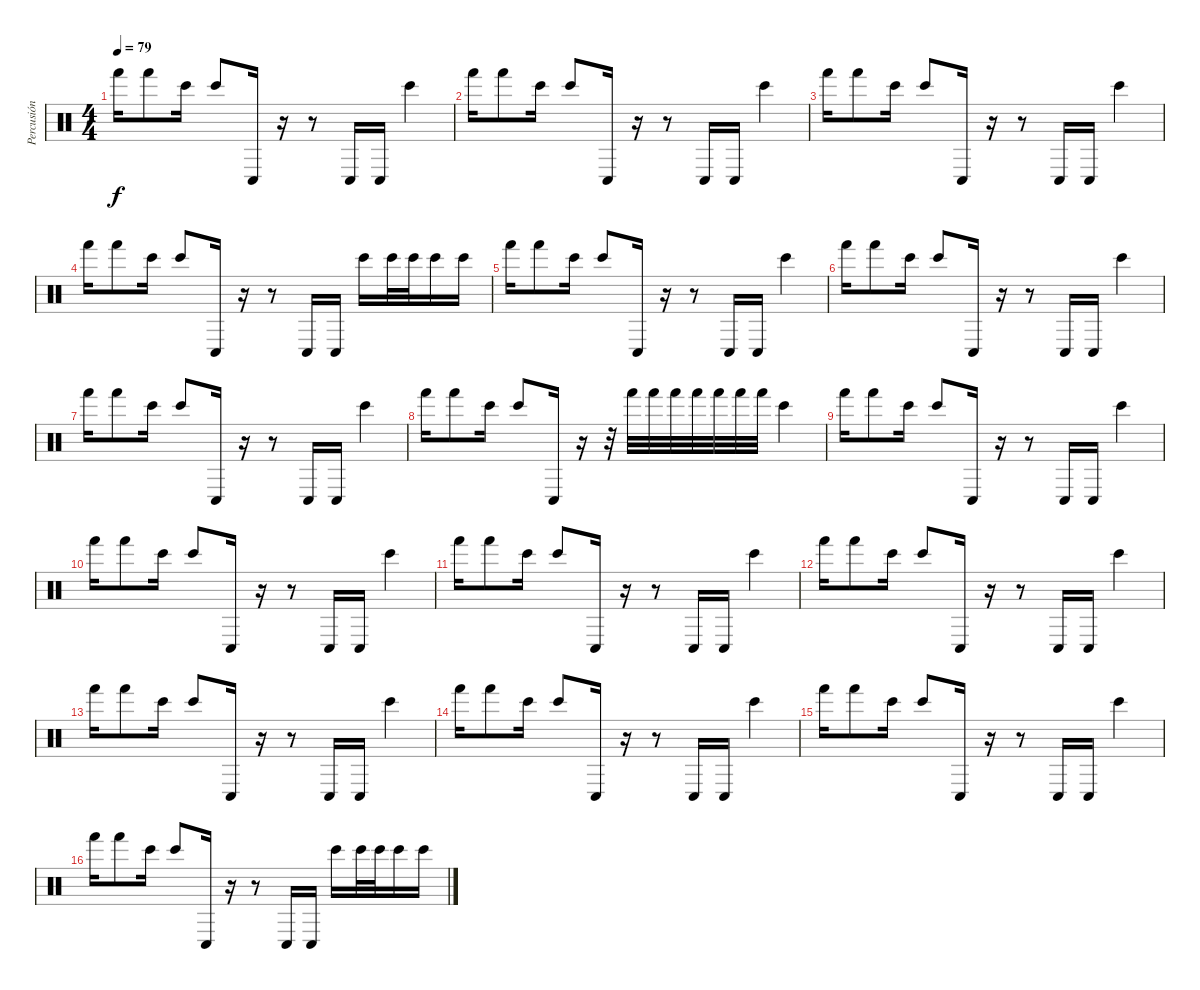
\track ("Percusión" "Percusión") {instrument percussion}
\staff {score}
\articulation defaults
\ts (4 4)
\tempo 79
\clef neutral
\ks c "Hand (hit)".16{dy f} "Hand (hit)".8 "Bongo High (hit)".16 "Bongo High (hit)".8 "Conga low (hit)".16
r.16 r.8 "Conga low (hit)".16 "Conga low (hit)".16 "Bongo High (hit)".4 |
"Hand (hit)".16 "Hand (hit)".8 "Bongo High (hit)".16 "Bongo High (hit)".8 "Conga low (hit)".16 r.16 r.8 "Conga low (hit)".16 "Conga low (hit)".16 "Bongo High (hit)".4 |
"Hand (hit)".16 "Hand (hit)".8 "Bongo High (hit)".16 "Bongo High (hit)".8 "Conga low (hit)".16 r.16 r.8 "Conga low (hit)".16 "Conga low (hit)".16 "Bongo High (hit)".4 |
"Hand (hit)".16 "Hand (hit)".8 "Bongo High (hit)".16 "Bongo High (hit)".8 "Conga low (hit)".16 r.16 r.8 "Conga low (hit)".16 "Conga low (hit)".16 "Bongo High (hit)".16 "Bongo High (hit)".32 "Bongo High (hit)".32 "Bongo High (hit)".16 "Bongo High (hit)".16 |
"Hand (hit)".16 "Hand (hit)".8 "Bongo High (hit)".16 "Bongo High (hit)".8 "Conga low (hit)".16 r.16 r.8 "Conga low (hit)".16 "Conga low (hit)".16 "Bongo High (hit)".4 |
"Hand (hit)".16 "Hand (hit)".8 "Bongo High (hit)".16 "Bongo High (hit)".8 "Conga low (hit)".16 r.16 r.8 "Conga low (hit)".16 "Conga low (hit)".16 "Bongo High (hit)".4 |
"Hand (hit)".16 "Hand (hit)".8 "Bongo High (hit)".16 "Bongo High (hit)".8 "Conga low (hit)".16 r.16 r.8 "Conga low (hit)".16 "Conga low (hit)".16 "Bongo High (hit)".4 |
"Hand (hit)".16 "Hand (hit)".8 "Bongo High (hit)".16 "Bongo High (hit)".8 "Conga low (hit)".16 r.16 r.32 "Hand (hit)".32 "Hand (hit)".32 "Hand (hit)".32 "Hand (hit)".32 "Hand (hit)".32 "Hand (hit)".32 "Hand (hit)".32 "Bongo High (hit)".4 |
"Hand (hit)".16 "Hand (hit)".8 "Bongo High (hit)".16 "Bongo High (hit)".8 "Conga low (hit)".16 r.16 r.8 "Conga low (hit)".16 "Conga low (hit)".16 "Bongo High (hit)".4 |
"Hand (hit)".16 "Hand (hit)".8 "Bongo High (hit)".16 "Bongo High (hit)".8 "Conga low (hit)".16 r.16 r.8 "Conga low (hit)".16 "Conga low (hit)".16 "Bongo High (hit)".4 |
"Hand (hit)".16 "Hand (hit)".8 "Bongo High (hit)".16 "Bongo High (hit)".8 "Conga low (hit)".16 r.16 r.8 "Conga low (hit)".16 "Conga low (hit)".16 "Bongo High (hit)".4 |
"Hand (hit)".16 "Hand (hit)".8 "Bongo High (hit)".16 "Bongo High (hit)".8 "Conga low (hit)".16 r.16 r.8 "Conga low (hit)".16 "Conga low (hit)".16 "Bongo High (hit)".4 |
"Hand (hit)".16 "Hand (hit)".8 "Bongo High (hit)".16 "Bongo High (hit)".8 "Conga low (hit)".16 r.16 r.8 "Conga low (hit)".16 "Conga low (hit)".16 "Bongo High (hit)".4 |
"Hand (hit)".16 "Hand (hit)".8 "Bongo High (hit)".16 "Bongo High (hit)".8 "Conga low (hit)".16 r.16 r.8 "Conga low (hit)".16 "Conga low (hit)".16 "Bongo High (hit)".4 |
"Hand (hit)".16 "Hand (hit)".8 "Bongo High (hit)".16 "Bongo High (hit)".8 "Conga low (hit)".16 r.16 r.8 "Conga low (hit)".16 "Conga low (hit)".16 "Bongo High (hit)".4 |
"Hand (hit)".16 "Hand (hit)".8 "Bongo High (hit)".16 "Bongo High (hit)".8 "Conga low (hit)".16 r.16 r.8 "Conga low (hit)".16 "Conga low (hit)".16 "Bongo High (hit)".16 "Bongo High (hit)".32 "Bongo High (hit)".32 "Bongo High (hit)".16 "Bongo High (hit)".16
